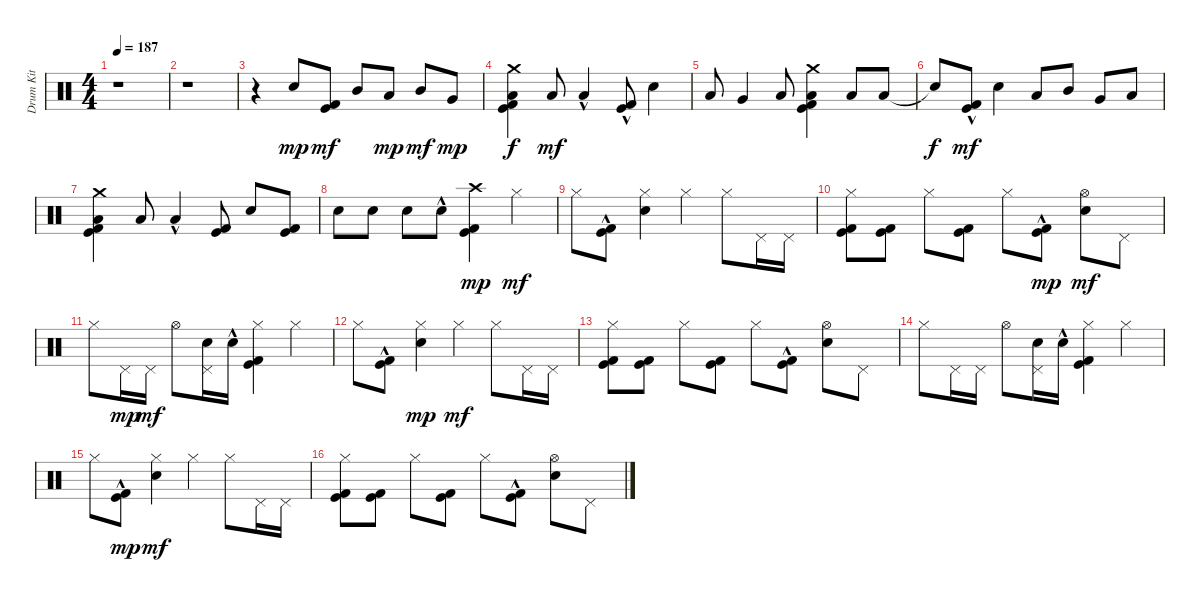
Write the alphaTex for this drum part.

\track ("Drum Kit" "Drum Kit") {instrument percussion}
\staff {score}
\articulation defaults
\ts (4 4)
\tempo 187
\clef neutral
\ks c
r.1{dy mp} |
r.1 |
r.4 "Electric Snare (hit)".8 ("Kick (hit) 2" "Kick (hit)").8{dy mf} "Mid Tom (hit)".8 "Low Tom (hit)".8{dy mp} "Mid Tom (hit)".8{dy mf} "Very Low Tom (hit)".8{dy mp} |
("Kick (hit) 2" "Kick (hit)" "Low Floor Tom (hit)" "Crash medium (hit)").4{dy f} "Low Floor Tom (hit)".8{dy mf} "Low Tom (hit)"{hac}.4 ("Kick (hit) 2"{hac} "Kick (hit)"{hac}).8 "Electric Snare (hit)".4 |
"Low Tom (hit)".8 "Very Low Tom (hit)".4 "Low Floor Tom (hit)".8 ("Kick (hit) 2" "Kick (hit)" "Low Floor Tom (hit)" "Crash medium (hit)").4 "Low Floor Tom (hit)".8 "Low Tom (hit)".8 |
"Snare (hit)"{t}.8{dy f} ("Kick (hit) 2"{hac} "Kick (hit)"{hac}).8{dy mf} "Electric Snare (hit)".4 "Low Tom (hit)".8 "Mid Tom (hit)".8 "Very Low Tom (hit)".8 "Low Floor Tom (hit)".8 |
("Kick (hit) 2" "Kick (hit)" "Low Floor Tom (hit)" "Crash medium (hit)").4 "Low Floor Tom (hit)".8 "Low Tom (hit)"{hac}.4 ("Kick (hit) 2" "Kick (hit)").8 "Electric Snare (hit)".8 ("Kick (hit) 2" "Kick (hit)").8 |
"Electric Snare (hit)".8 "Electric Snare (hit)".8 "Electric Snare (hit)".8 "Electric Snare (hit)"{hac}.8 ("Kick (hit) 2" "Kick (hit)" "Crash high (hit)").4{dy mp} "Hi-Hat (closed)".4{dy mf} |
"Hi-Hat (closed)".8 ("Kick (hit) 2"{hac} "Kick (hit)"{hac}).8 ("Electric Snare (hit)" "Hi-Hat (closed)").4 "Hi-Hat (closed)".4 "Hi-Hat (closed)".8 "Pedal Hi-Hat (hit)".16 "Pedal Hi-Hat (hit)".16 |
("Kick (hit) 2" "Kick (hit)" "Hi-Hat (closed)").8 ("Kick (hit) 2" "Kick (hit)").8 "Hi-Hat (closed)".8 ("Kick (hit) 2" "Kick (hit)").8 "Hi-Hat (closed)".8 ("Kick (hit) 2"{hac} "Kick (hit)"{hac}).8{dy mp} ("Electric Snare (hit)" "Hi-Hat (open)").8{dy mf} "Pedal Hi-Hat (hit)".8 |
"Hi-Hat (closed)".8 "Pedal Hi-Hat (hit)".16{dy mp} "Pedal Hi-Hat (hit)".16{dy mf} "Hi-Hat (open)".8 ("Pedal Hi-Hat (hit)" "Electric Snare (hit)").16 "Electric Snare (hit)"{hac}.16 ("Kick (hit) 2" "Kick (hit)" "Hi-Hat (closed)").4 "Hi-Hat (closed)".4 |
"Hi-Hat (closed)".8 ("Kick (hit) 2"{hac} "Kick (hit)"{hac}).8 ("Electric Snare (hit)" "Hi-Hat (closed)").4{dy mp} "Hi-Hat (closed)".4{dy mf} "Hi-Hat (closed)".8 "Pedal Hi-Hat (hit)".16 "Pedal Hi-Hat (hit)".16 |
("Kick (hit) 2" "Kick (hit)" "Hi-Hat (closed)").8 ("Kick (hit) 2" "Kick (hit)").8 "Hi-Hat (closed)".8 ("Kick (hit) 2" "Kick (hit)").8 "Hi-Hat (closed)".8 ("Kick (hit) 2"{hac} "Kick (hit)"{hac}).8 ("Electric Snare (hit)" "Hi-Hat (open)").8 "Pedal Hi-Hat (hit)".8 |
"Hi-Hat (closed)".8 "Pedal Hi-Hat (hit)".16 "Pedal Hi-Hat (hit)".16 "Hi-Hat (open)".8 ("Pedal Hi-Hat (hit)" "Electric Snare (hit)").16 "Electric Snare (hit)"{hac}.16 ("Kick (hit) 2" "Kick (hit)" "Hi-Hat (closed)").4 "Hi-Hat (closed)".4 |
"Hi-Hat (closed)".8 ("Kick (hit) 2"{hac} "Kick (hit)"{hac}).8{dy mp} ("Electric Snare (hit)" "Hi-Hat (closed)").4{dy mf} "Hi-Hat (closed)".4 "Hi-Hat (closed)".8 "Pedal Hi-Hat (hit)".16 "Pedal Hi-Hat (hit)".16 |
("Kick (hit) 2" "Kick (hit)" "Hi-Hat (closed)").8 ("Kick (hit) 2" "Kick (hit)").8 "Hi-Hat (closed)".8 ("Kick (hit) 2" "Kick (hit)").8 "Hi-Hat (closed)".8 ("Kick (hit) 2"{hac} "Kick (hit)"{hac}).8 ("Electric Snare (hit)" "Hi-Hat (open)").8 "Pedal Hi-Hat (hit)".8
